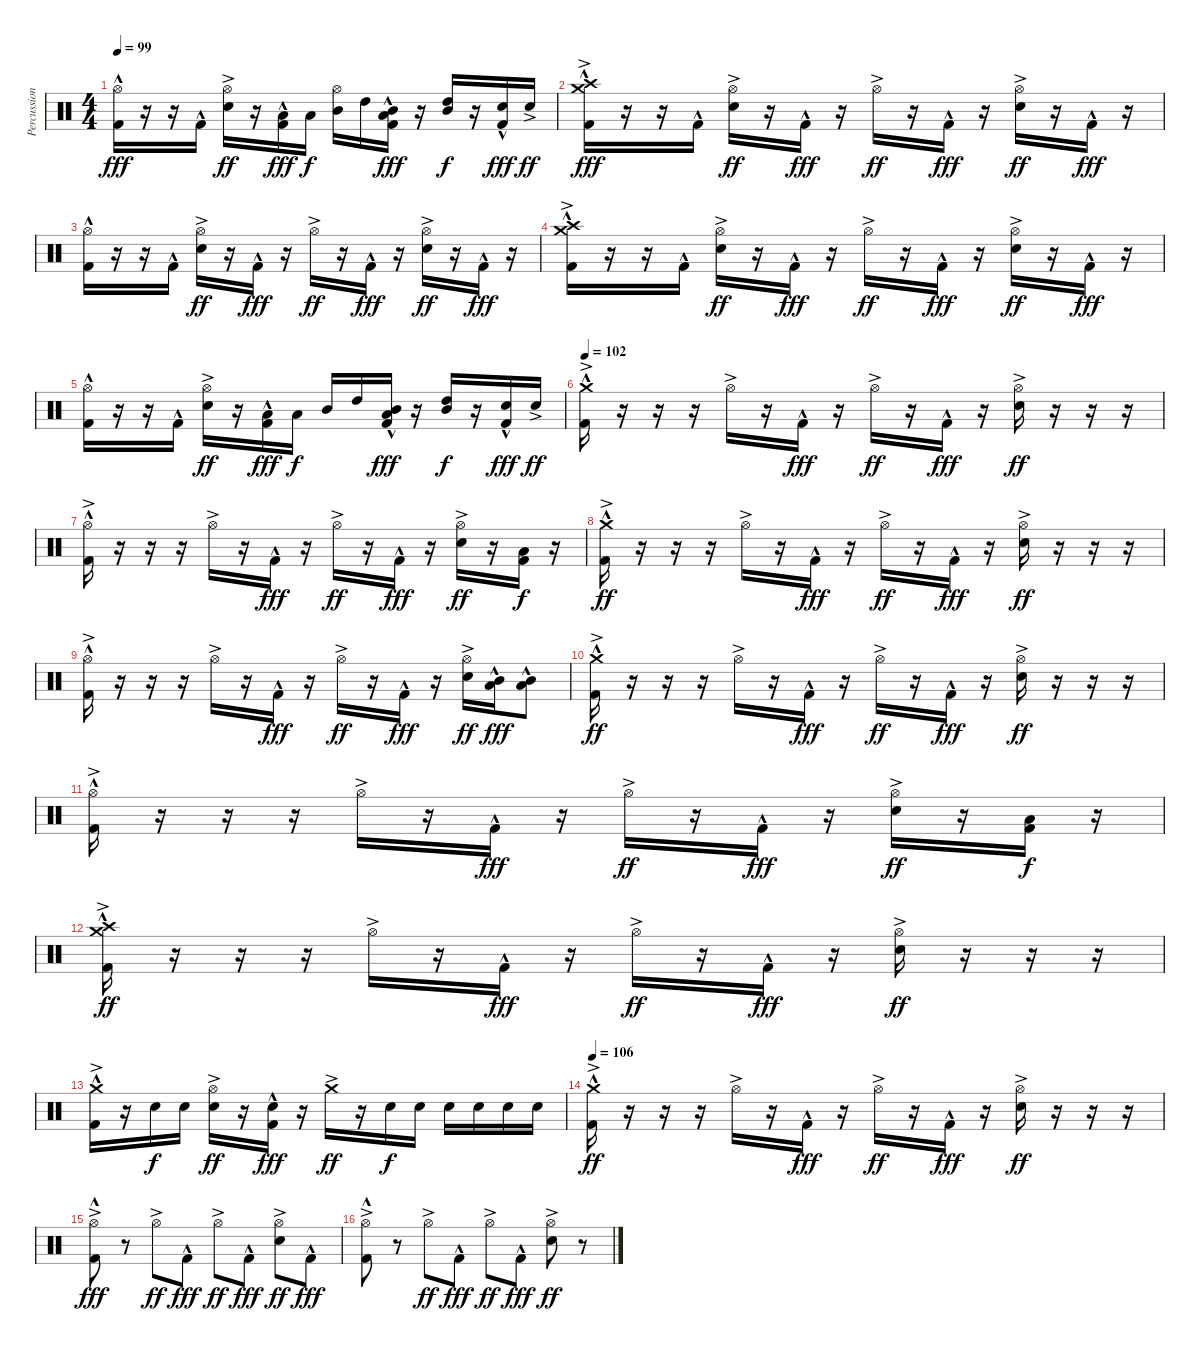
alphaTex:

\track ("Percussion" "Percussion") {instrument percussion}
\staff {score}
\articulation defaults
\ts (4 4)
\tempo 99
\clef neutral
\ks c
("Hi-Hat (open)"{hac} "Kick (hit) 2"{hac}).16{dy fff} r.16 r.16 "Kick (hit) 2"{hac}.16 ("Hi-Hat (open)"{ac} "Snare (hit) 2"{ac}).16{dy ff} r.16 ("Low Tom (hit)" "Kick (hit) 2"{hac}).16{dy fff} "Low Tom (hit)".16{dy f} ("Hi-Hat (open)" "Mid Tom (hit)").16 "High Tom (hit)".16 ("Low Tom (hit)" "Mid Tom (hit)" "Kick (hit) 2"{hac}).16{dy fff} r.16 ("High Tom (hit)" "Mid Tom (hit)").16{dy f} r.16 ("Snare (hit) 2" "Kick (hit) 2"{hac}).16{dy fff} "Snare (hit) 2"{ac}.16{dy ff} |
("Crash medium (hit)"{hac} "Crash high (hit)"{ac} "Kick (hit) 2"{hac}).16{dy fff} r.16 r.16 "Kick (hit) 2"{hac}.16 ("Hi-Hat (open)"{ac} "Snare (hit) 2"{ac}).16{dy ff} r.16 "Kick (hit) 2"{hac}.16{dy fff} r.16 "Hi-Hat (open)"{ac}.16{dy ff} r.16 "Kick (hit) 2"{hac}.16{dy fff} r.16 ("Hi-Hat (open)"{ac} "Snare (hit) 2"{ac}).16{dy ff} r.16 "Kick (hit) 2"{hac}.16{dy fff} r.16 |
("Hi-Hat (open)"{hac} "Kick (hit) 2"{hac}).16 r.16 r.16 "Kick (hit) 2"{hac}.16 ("Hi-Hat (open)"{ac} "Snare (hit) 2"{ac}).16{dy ff} r.16 "Kick (hit) 2"{hac}.16{dy fff} r.16 "Hi-Hat (open)"{ac}.16{dy ff} r.16 "Kick (hit) 2"{hac}.16{dy fff} r.16 ("Hi-Hat (open)"{ac} "Snare (hit) 2"{ac}).16{dy ff} r.16 "Kick (hit) 2"{hac}.16{dy fff} r.16 |
("Crash medium (hit)"{hac} "Crash high (hit)"{ac} "Kick (hit) 2"{hac}).16 r.16 r.16 "Kick (hit) 2"{hac}.16 ("Hi-Hat (open)"{ac} "Snare (hit) 2"{ac}).16{dy ff} r.16 "Kick (hit) 2"{hac}.16{dy fff} r.16 "Hi-Hat (open)"{ac}.16{dy ff} r.16 "Kick (hit) 2"{hac}.16{dy fff} r.16 ("Hi-Hat (open)"{ac} "Snare (hit) 2"{ac}).16{dy ff} r.16 "Kick (hit) 2"{hac}.16{dy fff} r.16 |
("Hi-Hat (open)"{hac} "Kick (hit) 2"{hac}).16 r.16 r.16 "Kick (hit) 2"{hac}.16 ("Hi-Hat (open)"{ac} "Snare (hit) 2"{ac}).16{dy ff} r.16 ("Low Tom (hit)" "Kick (hit) 2"{hac}).16{dy fff} "Low Tom (hit)".16{dy f} "Mid Tom (hit)".16 "High Tom (hit)".16 ("Low Tom (hit)" "Mid Tom (hit)" "Kick (hit) 2"{hac}).16{dy fff} r.16 ("High Tom (hit)" "Mid Tom (hit)").16{dy f} r.16 ("Snare (hit) 2" "Kick (hit) 2"{hac}).16{dy fff} "Snare (hit) 2"{ac}.16{dy ff} |
\tempo 107
\tempo 102
("Crash medium (hit)"{hac} "Kick (hit) 2"{ac}).16 r.16 r.16 r.16 "Hi-Hat (open)"{ac}.16 r.16 "Kick (hit) 2"{hac}.16{dy fff} r.16 "Hi-Hat (open)"{ac}.16{dy ff} r.16 "Kick (hit) 2"{hac}.16{dy fff} r.16 ("Hi-Hat (open)"{ac} "Snare (hit) 2"{ac}).16{dy ff} r.16 r.16 r.16 |
("Hi-Hat (open)"{hac} "Kick (hit) 2"{ac}).16 r.16 r.16 r.16 "Hi-Hat (open)"{ac}.16 r.16 "Kick (hit) 2"{hac}.16{dy fff} r.16 "Hi-Hat (open)"{ac}.16{dy ff} r.16 "Kick (hit) 2"{hac}.16{dy fff} r.16 ("Hi-Hat (open)"{ac} "Snare (hit) 2"{ac}).16{dy ff} r.16 ("Low Tom (hit)" "Kick (hit) 2").16{dy f} r.16 |
("Crash medium (hit)"{hac} "Kick (hit) 2"{ac}).16{dy ff} r.16 r.16 r.16 "Hi-Hat (open)"{ac}.16 r.16 "Kick (hit) 2"{hac}.16{dy fff} r.16 "Hi-Hat (open)"{ac}.16{dy ff} r.16 "Kick (hit) 2"{hac}.16{dy fff} r.16 ("Hi-Hat (open)"{ac} "Snare (hit) 2"{ac}).16{dy ff} r.16 r.16 r.16 |
("Hi-Hat (open)"{hac} "Kick (hit) 2"{ac}).16 r.16 r.16 r.16 "Hi-Hat (open)"{ac}.16 r.16 "Kick (hit) 2"{hac}.16{dy fff} r.16 "Hi-Hat (open)"{ac}.16{dy ff} r.16 "Kick (hit) 2"{hac}.16{dy fff} r.16 ("Hi-Hat (open)"{ac} "Snare (hit) 2"{ac}).16{dy ff} ("Low Tom (hit)"{hac} "Mid Tom (hit)"{hac}).16{dy fff} ("Low Tom (hit)"{hac} "Mid Tom (hit)"{hac}).8 |
("Crash medium (hit)"{hac} "Kick (hit) 2"{ac}).16{dy ff} r.16 r.16 r.16 "Hi-Hat (open)"{ac}.16 r.16 "Kick (hit) 2"{hac}.16{dy fff} r.16 "Hi-Hat (open)"{ac}.16{dy ff} r.16 "Kick (hit) 2"{hac}.16{dy fff} r.16 ("Hi-Hat (open)"{ac} "Snare (hit) 2"{ac}).16{dy ff} r.16 r.16 r.16 |
("Hi-Hat (open)"{hac} "Kick (hit) 2"{ac}).16 r.16 r.16 r.16 "Hi-Hat (open)"{ac}.16 r.16 "Kick (hit) 2"{hac}.16{dy fff} r.16 "Hi-Hat (open)"{ac}.16{dy ff} r.16 "Kick (hit) 2"{hac}.16{dy fff} r.16 ("Hi-Hat (open)"{ac} "Snare (hit) 2"{ac}).16{dy ff} r.16 ("Low Tom (hit)" "Kick (hit) 2").16{dy f} r.16 |
("Crash medium (hit)"{hac} "Crash high (hit)"{hac} "Kick (hit) 2"{ac}).16{dy ff} r.16 r.16 r.16 "Hi-Hat (open)"{ac}.16 r.16 "Kick (hit) 2"{hac}.16{dy fff} r.16 "Hi-Hat (open)"{ac}.16{dy ff} r.16 "Kick (hit) 2"{hac}.16{dy fff} r.16 ("Hi-Hat (open)"{ac} "Snare (hit) 2"{ac}).16{dy ff} r.16 r.16 r.16 |
("Crash medium (hit)"{hac} "Kick (hit) 2"{ac}).16 r.16 "Snare (hit) 2".16{dy f} "Snare (hit) 2".16 ("Hi-Hat (open)"{ac} "Snare (hit) 2").16{dy ff} r.16 ("Snare (hit) 2" "Kick (hit) 2"{hac}).16{dy fff} r.16 "Crash medium (hit)"{ac}.16{dy ff} r.16 "Snare (hit) 2".16{dy f} "Snare (hit) 2".16 "Snare (hit) 2".16 "Snare (hit) 2".16 "Snare (hit) 2".16 "Snare (hit) 2".16 |
\tempo 92
\tempo 106
("Crash medium (hit)"{hac} "Kick (hit) 2"{ac}).16{dy ff} r.16 r.16 r.16 "Hi-Hat (open)"{ac}.16 r.16 "Kick (hit) 2"{hac}.16{dy fff} r.16 "Hi-Hat (open)"{ac}.16{dy ff} r.16 "Kick (hit) 2"{hac}.16{dy fff} r.16 ("Hi-Hat (open)"{ac} "Snare (hit) 2"{ac}).16{dy ff} r.16 r.16 r.16 |
("Hi-Hat (open)"{ac} "Kick (hit) 2"{hac}).8{dy fff} r.8 "Hi-Hat (open)"{ac}.8{dy ff} "Kick (hit) 2"{hac}.8{dy fff} "Hi-Hat (open)"{ac}.8{dy ff} "Kick (hit) 2"{hac}.8{dy fff} ("Hi-Hat (open)"{ac} "Snare (hit) 2"{ac}).8{dy ff} "Kick (hit) 2"{hac}.8{dy fff} |
("Hi-Hat (open)"{ac} "Kick (hit) 2"{hac}).8 r.8 "Hi-Hat (open)"{ac}.8{dy ff} "Kick (hit) 2"{hac}.8{dy fff} "Hi-Hat (open)"{ac}.8{dy ff} "Kick (hit) 2"{hac}.8{dy fff} ("Hi-Hat (open)"{ac} "Snare (hit) 2"{ac}).8{dy ff} r.8
